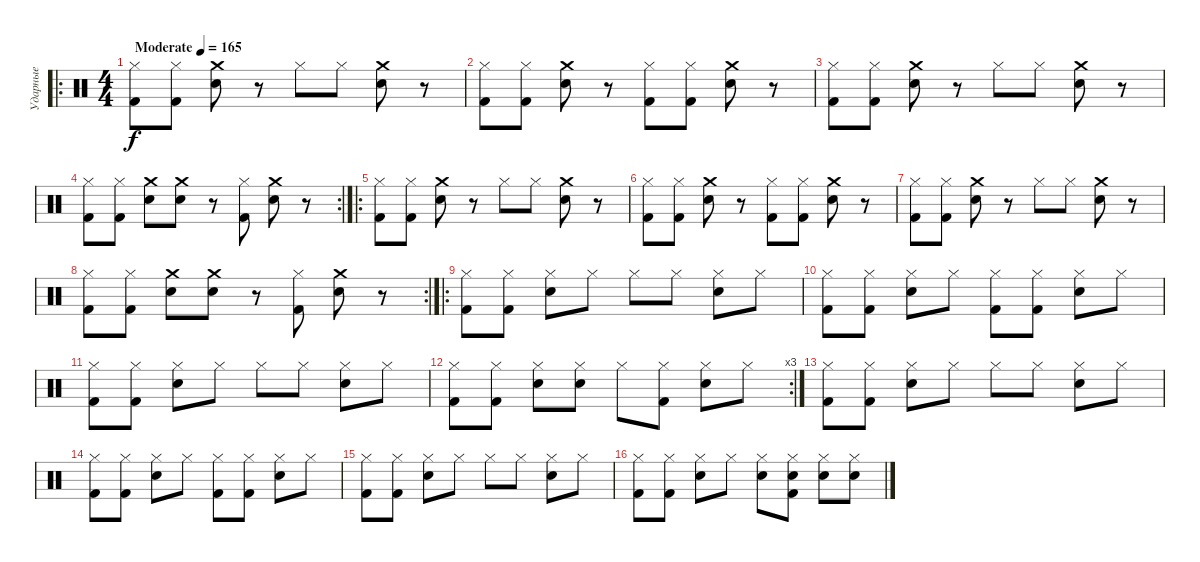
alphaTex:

\track ("Ударные" "Ударные") {instrument percussion}
\staff {score}
\articulation defaults
\ro
\ts (4 4)
\tempo (165 "Moderate")
\clef neutral
\ks c
("Kick (hit) 2" "Hi-Hat (closed)").8{dy f} ("Kick (hit) 2" "Hi-Hat (closed)").8 ("Electric Snare (hit)" "Crash medium (hit)").8 r.8 "Hi-Hat (closed)".8 "Hi-Hat (closed)".8 ("Electric Snare (hit)" "Crash medium (hit)").8 r.8 |
("Kick (hit) 2" "Hi-Hat (closed)").8 ("Kick (hit) 2" "Hi-Hat (closed)").8 ("Electric Snare (hit)" "Crash medium (hit)").8 r.8 ("Kick (hit) 2" "Hi-Hat (closed)").8 ("Kick (hit) 2" "Hi-Hat (closed)").8 ("Electric Snare (hit)" "Crash medium (hit)").8 r.8 |
("Kick (hit) 2" "Hi-Hat (closed)").8 ("Kick (hit) 2" "Hi-Hat (closed)").8 ("Electric Snare (hit)" "Crash medium (hit)").8 r.8 "Hi-Hat (closed)".8 "Hi-Hat (closed)".8 ("Electric Snare (hit)" "Crash medium (hit)").8 r.8 |
\rc 2
("Kick (hit) 2" "Hi-Hat (closed)").8 ("Kick (hit) 2" "Hi-Hat (closed)").8 ("Electric Snare (hit)" "Crash medium (hit)").8 ("Electric Snare (hit)" "Crash medium (hit)").8 r.8 ("Kick (hit) 2" "Hi-Hat (closed)").8 ("Electric Snare (hit)" "Crash medium (hit)").8 r.8 |
\ro
("Kick (hit) 2" "Hi-Hat (closed)").8 ("Kick (hit) 2" "Hi-Hat (closed)").8 ("Electric Snare (hit)" "Crash medium (hit)").8 r.8 "Hi-Hat (closed)".8 "Hi-Hat (closed)".8 ("Electric Snare (hit)" "Crash medium (hit)").8 r.8 |
("Kick (hit) 2" "Hi-Hat (closed)").8 ("Kick (hit) 2" "Hi-Hat (closed)").8 ("Electric Snare (hit)" "Crash medium (hit)").8 r.8 ("Kick (hit) 2" "Hi-Hat (closed)").8 ("Kick (hit) 2" "Hi-Hat (closed)").8 ("Electric Snare (hit)" "Crash medium (hit)").8 r.8 |
("Kick (hit) 2" "Hi-Hat (closed)").8 ("Kick (hit) 2" "Hi-Hat (closed)").8 ("Electric Snare (hit)" "Crash medium (hit)").8 r.8 "Hi-Hat (closed)".8 "Hi-Hat (closed)".8 ("Electric Snare (hit)" "Crash medium (hit)").8 r.8 |
\rc 2
("Kick (hit) 2" "Hi-Hat (closed)").8 ("Kick (hit) 2" "Hi-Hat (closed)").8 ("Electric Snare (hit)" "Crash medium (hit)").8 ("Electric Snare (hit)" "Crash medium (hit)").8 r.8 ("Kick (hit) 2" "Hi-Hat (closed)").8 ("Electric Snare (hit)" "Crash medium (hit)").8 r.8 |
\ro
("Kick (hit) 2" "Hi-Hat (closed)").8 ("Kick (hit) 2" "Hi-Hat (closed)").8 ("Electric Snare (hit)" "Hi-Hat (closed)").8 "Hi-Hat (closed)".8 "Hi-Hat (closed)".8 "Hi-Hat (closed)".8 ("Electric Snare (hit)" "Hi-Hat (closed)").8 "Hi-Hat (closed)".8 |
("Kick (hit) 2" "Hi-Hat (closed)").8 ("Kick (hit) 2" "Hi-Hat (closed)").8 ("Electric Snare (hit)" "Hi-Hat (closed)").8 "Hi-Hat (closed)".8 ("Kick (hit) 2" "Hi-Hat (closed)").8 ("Kick (hit) 2" "Hi-Hat (closed)").8 ("Electric Snare (hit)" "Hi-Hat (closed)").8 "Hi-Hat (closed)".8 |
("Kick (hit) 2" "Hi-Hat (closed)").8 ("Kick (hit) 2" "Hi-Hat (closed)").8 ("Electric Snare (hit)" "Hi-Hat (closed)").8 "Hi-Hat (closed)".8 "Hi-Hat (closed)".8 "Hi-Hat (closed)".8 ("Electric Snare (hit)" "Hi-Hat (closed)").8 "Hi-Hat (closed)".8 |
\rc 3
("Kick (hit) 2" "Hi-Hat (closed)").8 ("Kick (hit) 2" "Hi-Hat (closed)").8 ("Electric Snare (hit)" "Hi-Hat (closed)").8 ("Electric Snare (hit)" "Hi-Hat (closed)").8 "Hi-Hat (closed)".8 ("Kick (hit) 2" "Hi-Hat (closed)").8 ("Electric Snare (hit)" "Hi-Hat (closed)").8 "Hi-Hat (closed)".8 |
("Kick (hit) 2" "Hi-Hat (closed)").8 ("Kick (hit) 2" "Hi-Hat (closed)").8 ("Electric Snare (hit)" "Hi-Hat (closed)").8 "Hi-Hat (closed)".8 "Hi-Hat (closed)".8 "Hi-Hat (closed)".8 ("Electric Snare (hit)" "Hi-Hat (closed)").8 "Hi-Hat (closed)".8 |
("Kick (hit) 2" "Hi-Hat (closed)").8 ("Kick (hit) 2" "Hi-Hat (closed)").8 ("Electric Snare (hit)" "Hi-Hat (closed)").8 "Hi-Hat (closed)".8 ("Kick (hit) 2" "Hi-Hat (closed)").8 ("Kick (hit) 2" "Hi-Hat (closed)").8 ("Electric Snare (hit)" "Hi-Hat (closed)").8 "Hi-Hat (closed)".8 |
("Kick (hit) 2" "Hi-Hat (closed)").8 ("Kick (hit) 2" "Hi-Hat (closed)").8 ("Electric Snare (hit)" "Hi-Hat (closed)").8 "Hi-Hat (closed)".8 "Hi-Hat (closed)".8 "Hi-Hat (closed)".8 ("Electric Snare (hit)" "Hi-Hat (closed)").8 "Hi-Hat (closed)".8 |
("Kick (hit) 2" "Hi-Hat (closed)").8 ("Kick (hit) 2" "Hi-Hat (closed)").8 ("Electric Snare (hit)" "Hi-Hat (closed)").8 "Hi-Hat (closed)".8 ("Electric Snare (hit)" "Hi-Hat (closed)").8 ("Kick (hit) 2" "Electric Snare (hit)" "Hi-Hat (closed)").8 ("Electric Snare (hit)" "Hi-Hat (closed)").8 ("Electric Snare (hit)" "Hi-Hat (closed)").8
